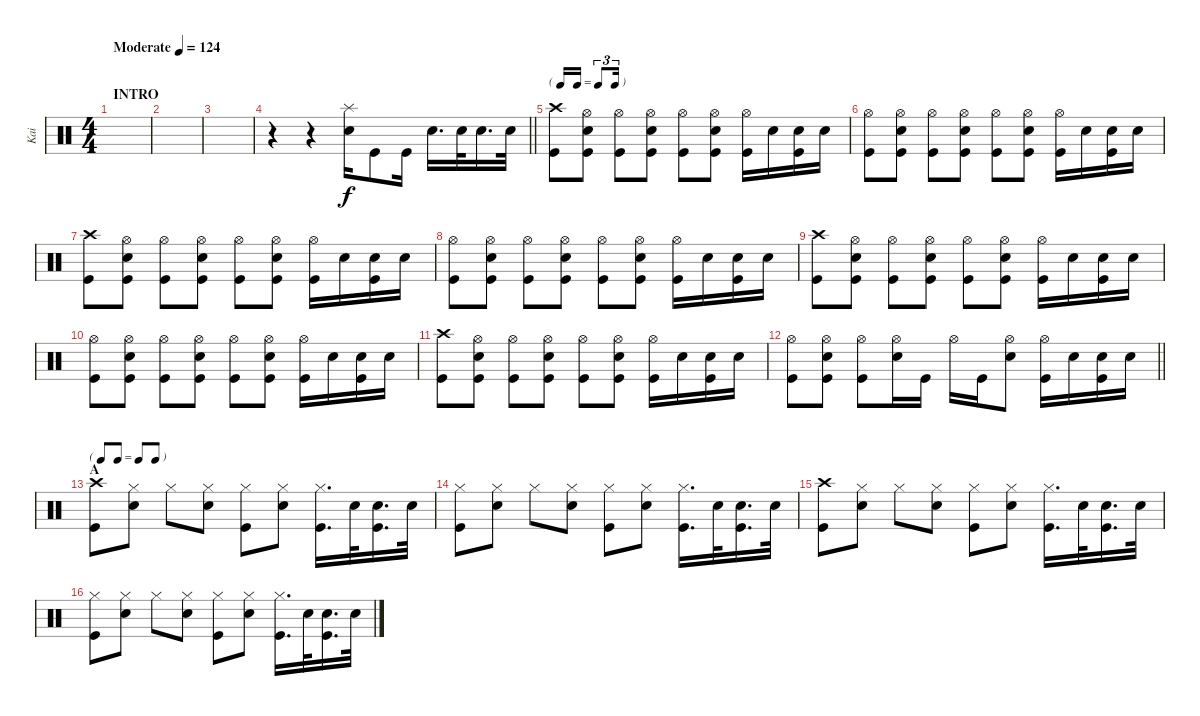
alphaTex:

\track ("Kai" "Kai") {instrument percussion}
\staff {score}
\articulation defaults
\ts (4 4)
\section ("" "INTRO")
\tempo (124 "Moderate")
\clef neutral
\ks c
|
|
|
\barLineRight lightlight
r.4 r.4 ("Snare (hit) 2" "Splash (hit)").16 "Kick (hit)".8 "Kick (hit)".16 "Snare (hit) 2".16{d} "Snare (hit) 2".32 "Snare (hit) 2".16{d} "Snare (hit) 2".32 |
\tf triplet16th
\section ("" "")
("Kick (hit)" "Crash high (hit)").8 ("Hi-Hat (open)" "Snare (hit) 2" "Kick (hit)").8 ("Hi-Hat (open)" "Kick (hit)").8 ("Hi-Hat (open)" "Snare (hit) 2" "Kick (hit)").8 ("Kick (hit)" "Hi-Hat (open)").8 ("Snare (hit) 2" "Hi-Hat (open)" "Kick (hit)").8 ("Kick (hit)" "Hi-Hat (open)").16 "Snare (hit) 2".16 ("Snare (hit) 2" "Kick (hit)").16 "Snare (hit) 2".16 |
("Hi-Hat (open)" "Kick (hit)").8 ("Hi-Hat (open)" "Snare (hit) 2" "Kick (hit)").8 ("Hi-Hat (open)" "Kick (hit)").8 ("Hi-Hat (open)" "Snare (hit) 2" "Kick (hit)").8 ("Kick (hit)" "Hi-Hat (open)").8 ("Snare (hit) 2" "Hi-Hat (open)" "Kick (hit)").8 ("Kick (hit)" "Hi-Hat (open)").16 "Snare (hit) 2".16 ("Snare (hit) 2" "Kick (hit)").16 "Snare (hit) 2".16 |
("Kick (hit)" "Crash high (hit)").8 ("Hi-Hat (open)" "Snare (hit) 2" "Kick (hit)").8 ("Hi-Hat (open)" "Kick (hit)").8 ("Hi-Hat (open)" "Snare (hit) 2" "Kick (hit)").8 ("Kick (hit)" "Hi-Hat (open)").8 ("Snare (hit) 2" "Hi-Hat (open)" "Kick (hit)").8 ("Kick (hit)" "Hi-Hat (open)").16 "Snare (hit) 2".16 ("Snare (hit) 2" "Kick (hit)").16 "Snare (hit) 2".16 |
("Hi-Hat (open)" "Kick (hit)").8 ("Hi-Hat (open)" "Snare (hit) 2" "Kick (hit)").8 ("Hi-Hat (open)" "Kick (hit)").8 ("Hi-Hat (open)" "Snare (hit) 2" "Kick (hit)").8 ("Kick (hit)" "Hi-Hat (open)").8 ("Snare (hit) 2" "Hi-Hat (open)" "Kick (hit)").8 ("Kick (hit)" "Hi-Hat (open)").16 "Snare (hit) 2".16 ("Snare (hit) 2" "Kick (hit)").16 "Snare (hit) 2".16 |
("Kick (hit)" "Crash high (hit)").8 ("Hi-Hat (open)" "Snare (hit) 2" "Kick (hit)").8 ("Hi-Hat (open)" "Kick (hit)").8 ("Hi-Hat (open)" "Snare (hit) 2" "Kick (hit)").8 ("Kick (hit)" "Hi-Hat (open)").8 ("Snare (hit) 2" "Hi-Hat (open)" "Kick (hit)").8 ("Kick (hit)" "Hi-Hat (open)").16 "Snare (hit) 2".16 ("Snare (hit) 2" "Kick (hit)").16 "Snare (hit) 2".16 |
("Hi-Hat (open)" "Kick (hit)").8 ("Hi-Hat (open)" "Snare (hit) 2" "Kick (hit)").8 ("Hi-Hat (open)" "Kick (hit)").8 ("Hi-Hat (open)" "Snare (hit) 2" "Kick (hit)").8 ("Kick (hit)" "Hi-Hat (open)").8 ("Snare (hit) 2" "Hi-Hat (open)" "Kick (hit)").8 ("Kick (hit)" "Hi-Hat (open)").16 "Snare (hit) 2".16 ("Snare (hit) 2" "Kick (hit)").16 "Snare (hit) 2".16 |
("Kick (hit)" "Crash high (hit)").8 ("Hi-Hat (open)" "Snare (hit) 2" "Kick (hit)").8 ("Hi-Hat (open)" "Kick (hit)").8 ("Hi-Hat (open)" "Snare (hit) 2" "Kick (hit)").8 ("Kick (hit)" "Hi-Hat (open)").8 ("Snare (hit) 2" "Hi-Hat (open)" "Kick (hit)").8 ("Kick (hit)" "Hi-Hat (open)").16 "Snare (hit) 2".16 ("Snare (hit) 2" "Kick (hit)").16 "Snare (hit) 2".16 |
\barLineRight lightlight
("Hi-Hat (open)" "Kick (hit)").8 ("Hi-Hat (open)" "Snare (hit) 2" "Kick (hit)").8 ("Hi-Hat (open)" "Kick (hit)").8 ("Hi-Hat (open)" "Snare (hit) 2").16 "Kick (hit)".16 "Hi-Hat (open)".16 "Kick (hit)".16 ("Snare (hit) 2" "Hi-Hat (open)").8 ("Kick (hit)" "Hi-Hat (open)").16 "Snare (hit) 2".16 ("Snare (hit) 2" "Kick (hit)").16 "Snare (hit) 2".16 |
\tf none
\section ("" "A")
("Kick (hit)" "Crash high (hit)").8 ("Hi-Hat (closed)" "Snare (hit) 2").8 "Hi-Hat (closed)".8 ("Hi-Hat (closed)" "Snare (hit) 2").8 ("Kick (hit)" "Hi-Hat (closed)").8 ("Snare (hit) 2" "Hi-Hat (closed)").8 ("Kick (hit)" "Hi-Hat (closed)").16{d} "Snare (hit) 2".32 ("Snare (hit) 2" "Kick (hit)").16{d} "Snare (hit) 2".32 |
("Hi-Hat (closed)" "Kick (hit)").8 ("Hi-Hat (closed)" "Snare (hit) 2").8 "Hi-Hat (closed)".8 ("Hi-Hat (closed)" "Snare (hit) 2").8 ("Kick (hit)" "Hi-Hat (closed)").8 ("Snare (hit) 2" "Hi-Hat (closed)").8 ("Kick (hit)" "Hi-Hat (closed)").16{d} "Snare (hit) 2".32 ("Snare (hit) 2" "Kick (hit)").16{d} "Snare (hit) 2".32 |
("Kick (hit)" "Crash high (hit)").8 ("Hi-Hat (closed)" "Snare (hit) 2").8 "Hi-Hat (closed)".8 ("Hi-Hat (closed)" "Snare (hit) 2").8 ("Kick (hit)" "Hi-Hat (closed)").8 ("Snare (hit) 2" "Hi-Hat (closed)").8 ("Kick (hit)" "Hi-Hat (closed)").16{d} "Snare (hit) 2".32 ("Snare (hit) 2" "Kick (hit)").16{d} "Snare (hit) 2".32 |
("Hi-Hat (closed)" "Kick (hit)").8 ("Hi-Hat (closed)" "Snare (hit) 2").8 "Hi-Hat (closed)".8 ("Hi-Hat (closed)" "Snare (hit) 2").8 ("Kick (hit)" "Hi-Hat (closed)").8 ("Snare (hit) 2" "Hi-Hat (closed)").8 ("Kick (hit)" "Hi-Hat (closed)").16{d} "Snare (hit) 2".32 ("Snare (hit) 2" "Kick (hit)").16{d} "Snare (hit) 2".32
